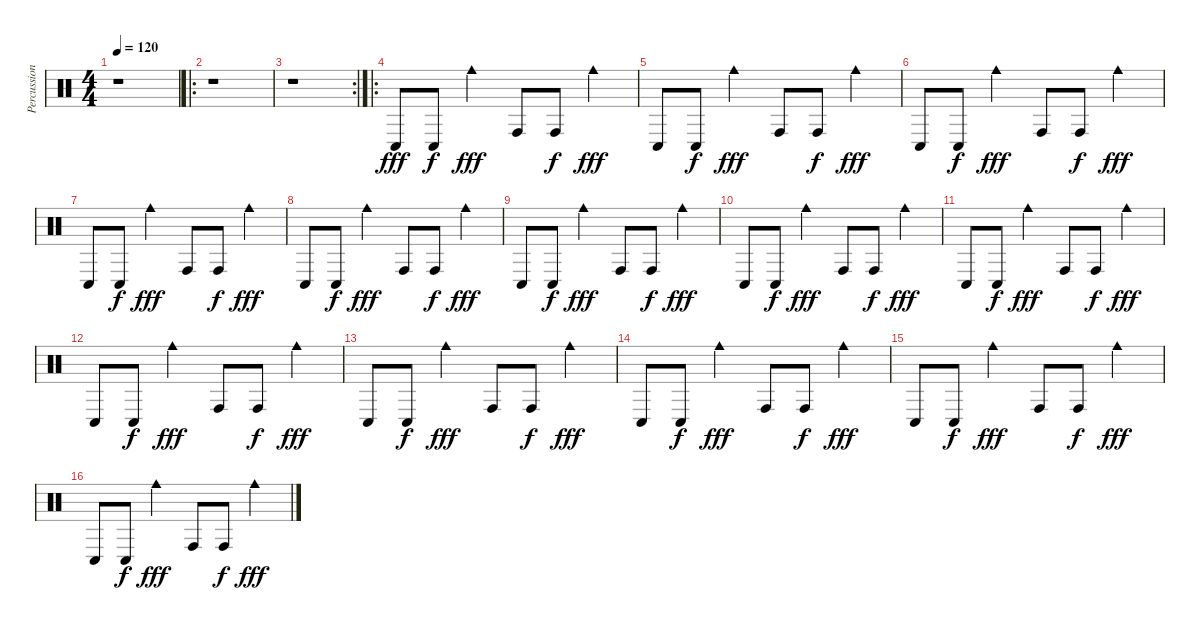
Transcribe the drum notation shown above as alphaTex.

\track ("Percussions" "Percussion") {instrument percussion}
\staff {score}
\articulation defaults
\ts (4 4)
\tempo 120
\clef neutral
\ks c
r.1{dy fff} |
\ro
r.1 |
\rc 2
r.1 |
\ro "Conga low (hit)".8 "Conga low (hit)".8{dy f} "Cowbell medium (hit)".4{dy fff} "Conga high (hit)".8 "Conga high (hit)".8{dy f} "Cowbell medium (hit)".4{dy fff}
|
"Conga low (hit)".8 "Conga low (hit)".8{dy f} "Cowbell medium (hit)".4{dy fff} "Conga high (hit)".8 "Conga high (hit)".8{dy f} "Cowbell medium (hit)".4{dy fff} |
"Conga low (hit)".8 "Conga low (hit)".8{dy f} "Cowbell medium (hit)".4{dy fff} "Conga high (hit)".8 "Conga high (hit)".8{dy f} "Cowbell medium (hit)".4{dy fff} |
"Conga low (hit)".8 "Conga low (hit)".8{dy f} "Cowbell medium (hit)".4{dy fff} "Conga high (hit)".8 "Conga high (hit)".8{dy f} "Cowbell medium (hit)".4{dy fff} |
"Conga low (hit)".8 "Conga low (hit)".8{dy f} "Cowbell medium (hit)".4{dy fff} "Conga high (hit)".8 "Conga high (hit)".8{dy f} "Cowbell medium (hit)".4{dy fff} |
"Conga low (hit)".8 "Conga low (hit)".8{dy f} "Cowbell medium (hit)".4{dy fff} "Conga high (hit)".8 "Conga high (hit)".8{dy f} "Cowbell medium (hit)".4{dy fff} |
"Conga low (hit)".8 "Conga low (hit)".8{dy f} "Cowbell medium (hit)".4{dy fff} "Conga high (hit)".8 "Conga high (hit)".8{dy f} "Cowbell medium (hit)".4{dy fff} |
"Conga low (hit)".8 "Conga low (hit)".8{dy f} "Cowbell medium (hit)".4{dy fff} "Conga high (hit)".8 "Conga high (hit)".8{dy f} "Cowbell medium (hit)".4{dy fff} |
"Conga low (hit)".8 "Conga low (hit)".8{dy f} "Cowbell medium (hit)".4{dy fff} "Conga high (hit)".8 "Conga high (hit)".8{dy f} "Cowbell medium (hit)".4{dy fff} |
"Conga low (hit)".8 "Conga low (hit)".8{dy f} "Cowbell medium (hit)".4{dy fff} "Conga high (hit)".8 "Conga high (hit)".8{dy f} "Cowbell medium (hit)".4{dy fff} |
"Conga low (hit)".8 "Conga low (hit)".8{dy f} "Cowbell medium (hit)".4{dy fff} "Conga high (hit)".8 "Conga high (hit)".8{dy f} "Cowbell medium (hit)".4{dy fff} |
"Conga low (hit)".8 "Conga low (hit)".8{dy f} "Cowbell medium (hit)".4{dy fff} "Conga high (hit)".8 "Conga high (hit)".8{dy f} "Cowbell medium (hit)".4{dy fff} |
"Conga low (hit)".8 "Conga low (hit)".8{dy f} "Cowbell medium (hit)".4{dy fff} "Conga high (hit)".8 "Conga high (hit)".8{dy f} "Cowbell medium (hit)".4{dy fff}
